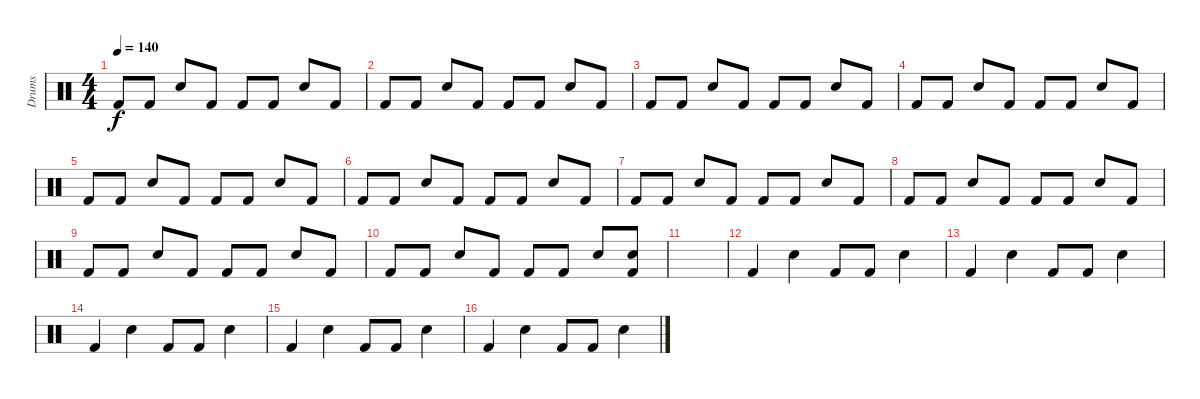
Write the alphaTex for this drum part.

\track ("Drums" "Drums") {instrument percussion}
\staff {score}
\articulation defaults
\ts (4 4)
\tempo 140
\clef neutral
\ks c "Kick (hit) 2".8{dy f} "Kick (hit) 2".8 "Snare (hit) 2".8 "Kick (hit) 2".8 "Kick (hit) 2".8 "Kick (hit) 2".8 "Snare (hit) 2".8 "Kick (hit) 2".8
|
"Kick (hit) 2".8 "Kick (hit) 2".8 "Snare (hit) 2".8 "Kick (hit) 2".8 "Kick (hit) 2".8 "Kick (hit) 2".8 "Snare (hit) 2".8 "Kick (hit) 2".8 |
"Kick (hit) 2".8 "Kick (hit) 2".8 "Snare (hit) 2".8 "Kick (hit) 2".8 "Kick (hit) 2".8 "Kick (hit) 2".8 "Snare (hit) 2".8 "Kick (hit) 2".8 |
"Kick (hit) 2".8 "Kick (hit) 2".8 "Snare (hit) 2".8 "Kick (hit) 2".8 "Kick (hit) 2".8 "Kick (hit) 2".8 "Snare (hit) 2".8 "Kick (hit) 2".8 |
"Kick (hit) 2".8 "Kick (hit) 2".8 "Snare (hit) 2".8 "Kick (hit) 2".8 "Kick (hit) 2".8 "Kick (hit) 2".8 "Snare (hit) 2".8 "Kick (hit) 2".8 |
"Kick (hit) 2".8 "Kick (hit) 2".8 "Snare (hit) 2".8 "Kick (hit) 2".8 "Kick (hit) 2".8 "Kick (hit) 2".8 "Snare (hit) 2".8 "Kick (hit) 2".8 |
"Kick (hit) 2".8 "Kick (hit) 2".8 "Snare (hit) 2".8 "Kick (hit) 2".8 "Kick (hit) 2".8 "Kick (hit) 2".8 "Snare (hit) 2".8 "Kick (hit) 2".8 |
"Kick (hit) 2".8 "Kick (hit) 2".8 "Snare (hit) 2".8 "Kick (hit) 2".8 "Kick (hit) 2".8 "Kick (hit) 2".8 "Snare (hit) 2".8 "Kick (hit) 2".8 |
"Kick (hit) 2".8 "Kick (hit) 2".8 "Snare (hit) 2".8 "Kick (hit) 2".8 "Kick (hit) 2".8 "Kick (hit) 2".8 "Snare (hit) 2".8 "Kick (hit) 2".8 |
"Kick (hit) 2".8 "Kick (hit) 2".8 "Snare (hit) 2".8 "Kick (hit) 2".8 "Kick (hit) 2".8 "Kick (hit) 2".8 "Snare (hit) 2".8 ("Kick (hit) 2" "Snare (hit) 2").8 |
|
"Kick (hit) 2".4 "Snare (hit) 2".4 "Kick (hit) 2".8 "Kick (hit) 2".8 "Snare (hit) 2".4 |
"Kick (hit) 2".4 "Snare (hit) 2".4 "Kick (hit) 2".8 "Kick (hit) 2".8 "Snare (hit) 2".4 |
"Kick (hit) 2".4 "Snare (hit) 2".4 "Kick (hit) 2".8 "Kick (hit) 2".8 "Snare (hit) 2".4 |
"Kick (hit) 2".4 "Snare (hit) 2".4 "Kick (hit) 2".8 "Kick (hit) 2".8 "Snare (hit) 2".4 |
"Kick (hit) 2".4 "Snare (hit) 2".4 "Kick (hit) 2".8 "Kick (hit) 2".8 "Snare (hit) 2".4
